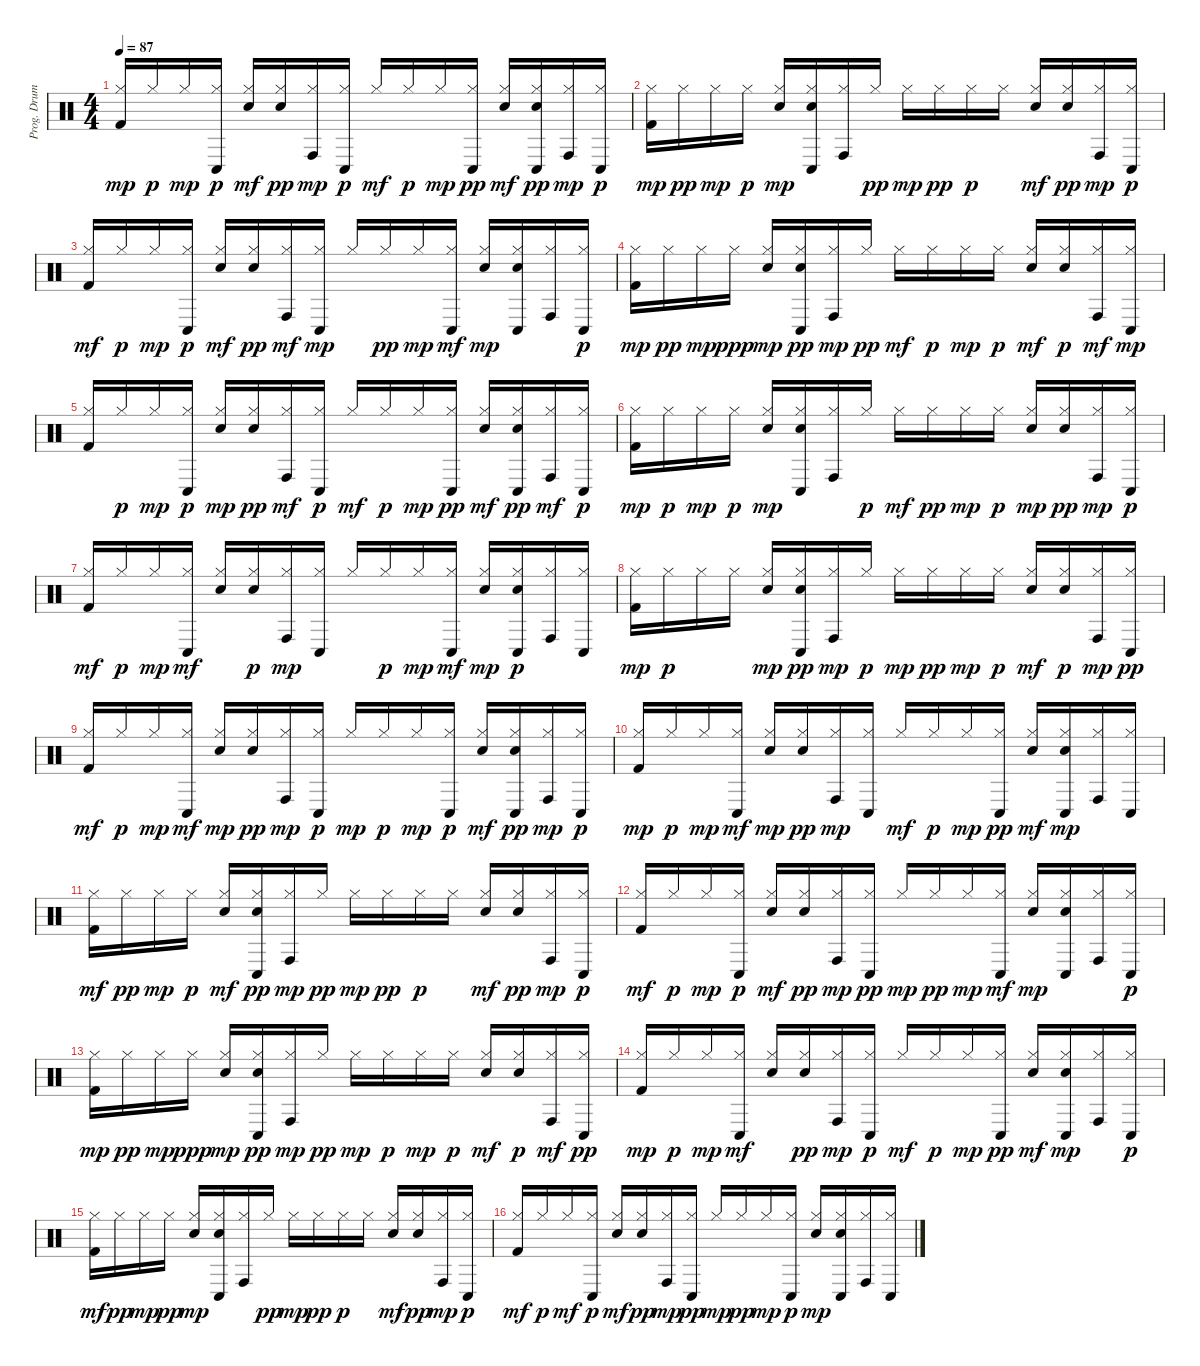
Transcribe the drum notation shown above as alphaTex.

\track ("Prog. Drums" "Prog. Drum") {instrument percussion}
\staff {score}
\articulation defaults
\ts (4 4)
\tempo 87
\clef neutral
\ks c
("Kick (hit) 2" "Hi-Hat (closed)").16{dy mp} "Hi-Hat (closed)".16{dy p} "Hi-Hat (closed)".16{dy mp} ("Conga low (hit)" "Hi-Hat (closed)").16{dy p} ("Snare (hit) 2" "Hi-Hat (closed)").16{dy mf} ("Hi-Hat (closed)" "Snare (hit) 2").16{dy pp} ("Conga high (hit)" "Hi-Hat (closed)").16{dy mp} ("Conga low (hit)" "Hi-Hat (closed)").16{dy p} "Hi-Hat (closed)".16{dy mf} "Hi-Hat (closed)".16{dy p} "Hi-Hat (closed)".16{dy mp} ("Conga low (hit)" "Hi-Hat (closed)").16{dy pp} ("Snare (hit) 2" "Hi-Hat (closed)").16{dy mf} ("Snare (hit) 2" "Conga low (hit)" "Hi-Hat (closed)").16{dy pp} ("Conga high (hit)" "Hi-Hat (closed)").16{dy mp} ("Conga low (hit)" "Hi-Hat (closed)").16{dy p} |
("Kick (hit) 2" "Hi-Hat (closed)").16{dy mp} "Hi-Hat (closed)".16{dy pp} "Hi-Hat (closed)".16{dy mp} "Hi-Hat (closed)".16{dy p} ("Snare (hit) 2" "Hi-Hat (closed)").16{dy mp} ("Hi-Hat (closed)" "Snare (hit) 2" "Conga low (hit)").16 ("Hi-Hat (closed)" "Conga high (hit)").16 "Hi-Hat (closed)".16{dy pp} "Hi-Hat (closed)".16{dy mp} "Hi-Hat (closed)".16{dy pp} "Hi-Hat (closed)".16{dy p} "Hi-Hat (closed)".16 ("Snare (hit) 2" "Hi-Hat (closed)").16{dy mf} ("Snare (hit) 2" "Hi-Hat (closed)").16{dy pp} ("Hi-Hat (closed)" "Conga high (hit)").16{dy mp} ("Conga low (hit)" "Hi-Hat (closed)").16{dy p} |
("Hi-Hat (closed)" "Kick (hit) 2").16{dy mf} "Hi-Hat (closed)".16{dy p} "Hi-Hat (closed)".16{dy mp} ("Conga low (hit)" "Hi-Hat (closed)").16{dy p} ("Snare (hit) 2" "Hi-Hat (closed)").16{dy mf} ("Hi-Hat (closed)" "Snare (hit) 2").16{dy pp} ("Conga high (hit)" "Hi-Hat (closed)").16{dy mf} ("Hi-Hat (closed)" "Conga low (hit)").16{dy mp} "Hi-Hat (closed)".16 "Hi-Hat (closed)".16{dy pp} "Hi-Hat (closed)".16{dy mp} ("Hi-Hat (closed)" "Conga low (hit)").16{dy mf} ("Hi-Hat (closed)" "Snare (hit) 2").16{dy mp} ("Snare (hit) 2" "Hi-Hat (closed)" "Conga low (hit)").16 ("Conga high (hit)" "Hi-Hat (closed)").16 ("Conga low (hit)" "Hi-Hat (closed)").16{dy p} |
("Kick (hit) 2" "Hi-Hat (closed)").16{dy mp} "Hi-Hat (closed)".16{dy pp} "Hi-Hat (closed)".16{dy mp} "Hi-Hat (closed)".16{dy ppp} ("Snare (hit) 2" "Hi-Hat (closed)").16{dy mp} ("Conga low (hit)" "Hi-Hat (closed)" "Snare (hit) 2").16{dy pp} ("Conga high (hit)" "Hi-Hat (closed)").16{dy mp} "Hi-Hat (closed)".16{dy pp} "Hi-Hat (closed)".16{dy mf} "Hi-Hat (closed)".16{dy p} "Hi-Hat (closed)".16{dy mp} "Hi-Hat (closed)".16{dy p} ("Snare (hit) 2" "Hi-Hat (closed)").16{dy mf} ("Snare (hit) 2" "Hi-Hat (closed)").16{dy p} ("Hi-Hat (closed)" "Conga high (hit)").16{dy mf} ("Hi-Hat (closed)" "Conga low (hit)").16{dy mp} |
("Kick (hit) 2" "Hi-Hat (closed)").16 "Hi-Hat (closed)".16{dy p} "Hi-Hat (closed)".16{dy mp} ("Conga low (hit)" "Hi-Hat (closed)").16{dy p} ("Snare (hit) 2" "Hi-Hat (closed)").16{dy mp} ("Snare (hit) 2" "Hi-Hat (closed)").16{dy pp} ("Hi-Hat (closed)" "Conga high (hit)").16{dy mf} ("Conga low (hit)" "Hi-Hat (closed)").16{dy p} "Hi-Hat (closed)".16{dy mf} "Hi-Hat (closed)".16{dy p} "Hi-Hat (closed)".16{dy mp} ("Conga low (hit)" "Hi-Hat (closed)").16{dy pp} ("Hi-Hat (closed)" "Snare (hit) 2").16{dy mf} ("Hi-Hat (closed)" "Conga low (hit)" "Snare (hit) 2").16{dy pp} ("Hi-Hat (closed)" "Conga high (hit)").16{dy mf} ("Conga low (hit)" "Hi-Hat (closed)").16{dy p} |
("Kick (hit) 2" "Hi-Hat (closed)").16{dy mp} "Hi-Hat (closed)".16{dy p} "Hi-Hat (closed)".16{dy mp} "Hi-Hat (closed)".16{dy p} ("Snare (hit) 2" "Hi-Hat (closed)").16{dy mp} ("Hi-Hat (closed)" "Snare (hit) 2" "Conga low (hit)").16 ("Conga high (hit)" "Hi-Hat (closed)").16 "Hi-Hat (closed)".16{dy p} "Hi-Hat (closed)".16{dy mf} "Hi-Hat (closed)".16{dy pp} "Hi-Hat (closed)".16{dy mp} "Hi-Hat (closed)".16{dy p} ("Hi-Hat (closed)" "Snare (hit) 2").16{dy mp} ("Hi-Hat (closed)" "Snare (hit) 2").16{dy pp} ("Conga high (hit)" "Hi-Hat (closed)").16{dy mp} ("Conga low (hit)" "Hi-Hat (closed)").16{dy p} |
("Kick (hit) 2" "Hi-Hat (closed)").16{dy mf} "Hi-Hat (closed)".16{dy p} "Hi-Hat (closed)".16{dy mp} ("Hi-Hat (closed)" "Conga low (hit)").16{dy mf} ("Snare (hit) 2" "Hi-Hat (closed)").16 ("Snare (hit) 2" "Hi-Hat (closed)").16{dy p} ("Conga high (hit)" "Hi-Hat (closed)").16{dy mp} ("Hi-Hat (closed)" "Conga low (hit)").16 "Hi-Hat (closed)".16 "Hi-Hat (closed)".16{dy p} "Hi-Hat (closed)".16{dy mp} ("Hi-Hat (closed)" "Conga low (hit)").16{dy mf} ("Snare (hit) 2" "Hi-Hat (closed)").16{dy mp} ("Snare (hit) 2" "Conga low (hit)" "Hi-Hat (closed)").16{dy p} ("Conga high (hit)" "Hi-Hat (closed)").16 ("Conga low (hit)" "Hi-Hat (closed)").16 |
("Kick (hit) 2" "Hi-Hat (closed)").16{dy mp} "Hi-Hat (closed)".16{dy p} "Hi-Hat (closed)".16 "Hi-Hat (closed)".16 ("Snare (hit) 2" "Hi-Hat (closed)").16{dy mp} ("Snare (hit) 2" "Conga low (hit)" "Hi-Hat (closed)").16{dy pp} ("Conga high (hit)" "Hi-Hat (closed)").16{dy mp} "Hi-Hat (closed)".16{dy p} "Hi-Hat (closed)".16{dy mp} "Hi-Hat (closed)".16{dy pp} "Hi-Hat (closed)".16{dy mp} "Hi-Hat (closed)".16{dy p} ("Snare (hit) 2" "Hi-Hat (closed)").16{dy mf} ("Snare (hit) 2" "Hi-Hat (closed)").16{dy p} ("Conga high (hit)" "Hi-Hat (closed)").16{dy mp} ("Conga low (hit)" "Hi-Hat (closed)").16{dy pp} |
("Kick (hit) 2" "Hi-Hat (closed)").16{dy mf} "Hi-Hat (closed)".16{dy p} "Hi-Hat (closed)".16{dy mp} ("Hi-Hat (closed)" "Conga low (hit)").16{dy mf} ("Snare (hit) 2" "Hi-Hat (closed)").16{dy mp} ("Hi-Hat (closed)" "Snare (hit) 2").16{dy pp} ("Conga high (hit)" "Hi-Hat (closed)").16{dy mp} ("Conga low (hit)" "Hi-Hat (closed)").16{dy p} "Hi-Hat (closed)".16{dy mp} "Hi-Hat (closed)".16{dy p} "Hi-Hat (closed)".16{dy mp} ("Conga low (hit)" "Hi-Hat (closed)").16{dy p} ("Hi-Hat (closed)" "Snare (hit) 2").16{dy mf} ("Conga low (hit)" "Hi-Hat (closed)" "Snare (hit) 2").16{dy pp} ("Conga high (hit)" "Hi-Hat (closed)").16{dy mp} ("Conga low (hit)" "Hi-Hat (closed)").16{dy p} |
("Kick (hit) 2" "Hi-Hat (closed)").16{dy mp} "Hi-Hat (closed)".16{dy p} "Hi-Hat (closed)".16{dy mp} ("Hi-Hat (closed)" "Conga low (hit)").16{dy mf} ("Snare (hit) 2" "Hi-Hat (closed)").16{dy mp} ("Snare (hit) 2" "Hi-Hat (closed)").16{dy pp} ("Conga high (hit)" "Hi-Hat (closed)").16{dy mp} ("Hi-Hat (closed)" "Conga low (hit)").16 "Hi-Hat (closed)".16{dy mf} "Hi-Hat (closed)".16{dy p} "Hi-Hat (closed)".16{dy mp} ("Conga low (hit)" "Hi-Hat (closed)").16{dy pp} ("Snare (hit) 2" "Hi-Hat (closed)").16{dy mf} ("Hi-Hat (closed)" "Snare (hit) 2" "Conga low (hit)").16{dy mp} ("Conga high (hit)" "Hi-Hat (closed)").16 ("Hi-Hat (closed)" "Conga low (hit)").16 |
("Hi-Hat (closed)" "Kick (hit) 2").16{dy mf} "Hi-Hat (closed)".16{dy pp} "Hi-Hat (closed)".16{dy mp} "Hi-Hat (closed)".16{dy p} ("Snare (hit) 2" "Hi-Hat (closed)").16{dy mf} ("Snare (hit) 2" "Conga low (hit)" "Hi-Hat (closed)").16{dy pp} ("Conga high (hit)" "Hi-Hat (closed)").16{dy mp} "Hi-Hat (closed)".16{dy pp} "Hi-Hat (closed)".16{dy mp} "Hi-Hat (closed)".16{dy pp} "Hi-Hat (closed)".16{dy p} "Hi-Hat (closed)".16 ("Snare (hit) 2" "Hi-Hat (closed)").16{dy mf} ("Snare (hit) 2" "Hi-Hat (closed)").16{dy pp} ("Conga high (hit)" "Hi-Hat (closed)").16{dy mp} ("Conga low (hit)" "Hi-Hat (closed)").16{dy p} |
("Hi-Hat (closed)" "Kick (hit) 2").16{dy mf} "Hi-Hat (closed)".16{dy p} "Hi-Hat (closed)".16{dy mp} ("Conga low (hit)" "Hi-Hat (closed)").16{dy p} ("Hi-Hat (closed)" "Snare (hit) 2").16{dy mf} ("Snare (hit) 2" "Hi-Hat (closed)").16{dy pp} ("Conga high (hit)" "Hi-Hat (closed)").16{dy mp} ("Conga low (hit)" "Hi-Hat (closed)").16{dy pp} "Hi-Hat (closed)".16{dy mp} "Hi-Hat (closed)".16{dy pp} "Hi-Hat (closed)".16{dy mp} ("Hi-Hat (closed)" "Conga low (hit)").16{dy mf} ("Snare (hit) 2" "Hi-Hat (closed)").16{dy mp} ("Hi-Hat (closed)" "Snare (hit) 2" "Conga low (hit)").16 ("Conga high (hit)" "Hi-Hat (closed)").16 ("Conga low (hit)" "Hi-Hat (closed)").16{dy p} |
("Kick (hit) 2" "Hi-Hat (closed)").16{dy mp} "Hi-Hat (closed)".16{dy pp} "Hi-Hat (closed)".16{dy mp} "Hi-Hat (closed)".16{dy ppp} ("Snare (hit) 2" "Hi-Hat (closed)").16{dy mp} ("Conga low (hit)" "Hi-Hat (closed)" "Snare (hit) 2").16{dy pp} ("Conga high (hit)" "Hi-Hat (closed)").16{dy mp} "Hi-Hat (closed)".16{dy pp} "Hi-Hat (closed)".16{dy mp} "Hi-Hat (closed)".16{dy p} "Hi-Hat (closed)".16{dy mp} "Hi-Hat (closed)".16{dy p} ("Hi-Hat (closed)" "Snare (hit) 2").16{dy mf} ("Snare (hit) 2" "Hi-Hat (closed)").16{dy p} ("Conga high (hit)" "Hi-Hat (closed)").16{dy mf} ("Conga low (hit)" "Hi-Hat (closed)").16{dy pp} |
("Kick (hit) 2" "Hi-Hat (closed)").16{dy mp} "Hi-Hat (closed)".16{dy p} "Hi-Hat (closed)".16{dy mp} ("Hi-Hat (closed)" "Conga low (hit)").16{dy mf} ("Snare (hit) 2" "Hi-Hat (closed)").16 ("Snare (hit) 2" "Hi-Hat (closed)").16{dy pp} ("Conga high (hit)" "Hi-Hat (closed)").16{dy mp} ("Conga low (hit)" "Hi-Hat (closed)").16{dy p} "Hi-Hat (closed)".16{dy mf} "Hi-Hat (closed)".16{dy p} "Hi-Hat (closed)".16{dy mp} ("Conga low (hit)" "Hi-Hat (closed)").16{dy pp} ("Hi-Hat (closed)" "Snare (hit) 2").16{dy mf} ("Hi-Hat (closed)" "Snare (hit) 2" "Conga low (hit)").16{dy mp} ("Conga high (hit)" "Hi-Hat (closed)").16 ("Conga low (hit)" "Hi-Hat (closed)").16{dy p} |
("Hi-Hat (closed)" "Kick (hit) 2").16{dy mf} "Hi-Hat (closed)".16{dy pp} "Hi-Hat (closed)".16{dy mp} "Hi-Hat (closed)".16{dy pp} ("Snare (hit) 2" "Hi-Hat (closed)").16{dy mp} ("Hi-Hat (closed)" "Snare (hit) 2" "Conga low (hit)").16 ("Conga high (hit)" "Hi-Hat (closed)").16 "Hi-Hat (closed)".16{dy pp} "Hi-Hat (closed)".16{dy mp} "Hi-Hat (closed)".16{dy pp} "Hi-Hat (closed)".16{dy p} "Hi-Hat (closed)".16 ("Snare (hit) 2" "Hi-Hat (closed)").16{dy mf} ("Snare (hit) 2" "Hi-Hat (closed)").16{dy pp} ("Conga high (hit)" "Hi-Hat (closed)").16{dy mp} ("Conga low (hit)" "Hi-Hat (closed)").16{dy p} |
("Hi-Hat (closed)" "Kick (hit) 2").16{dy mf} "Hi-Hat (closed)".16{dy p} "Hi-Hat (closed)".16{dy mf} ("Conga low (hit)" "Hi-Hat (closed)").16{dy p} ("Snare (hit) 2" "Hi-Hat (closed)").16{dy mf} ("Snare (hit) 2" "Hi-Hat (closed)").16{dy pp} ("Conga high (hit)" "Hi-Hat (closed)").16{dy mp} ("Conga low (hit)" "Hi-Hat (closed)").16{dy pp} "Hi-Hat (closed)".16{dy mp} "Hi-Hat (closed)".16{dy pp} "Hi-Hat (closed)".16{dy mp} ("Conga low (hit)" "Hi-Hat (closed)").16{dy p} ("Snare (hit) 2" "Hi-Hat (closed)").16{dy mp} ("Snare (hit) 2" "Hi-Hat (closed)" "Conga low (hit)").16 ("Conga high (hit)" "Hi-Hat (closed)").16 ("Hi-Hat (closed)" "Conga low (hit)").16
